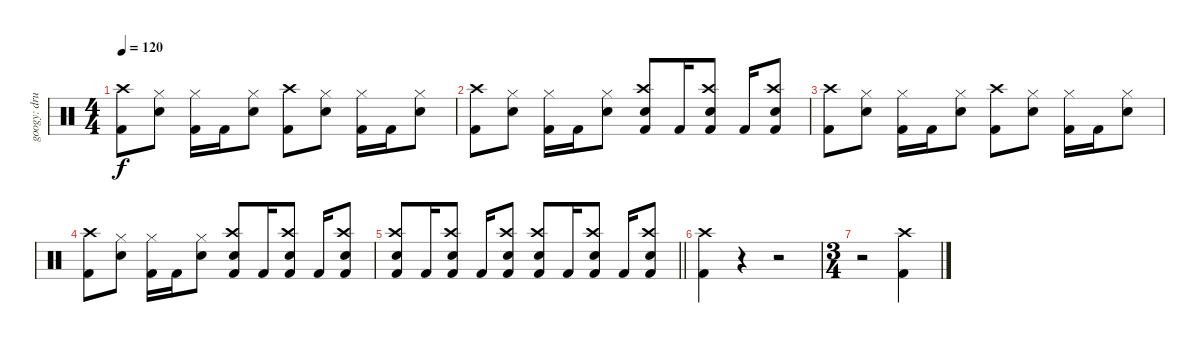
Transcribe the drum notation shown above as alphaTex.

\track ("googy: drums" "googy: dru") {instrument percussion}
\staff {score}
\articulation defaults
\ts (4 4)
\tempo 120
\clef neutral
\ks c
("Kick (hit) 2" "Crash high (hit)").8{dy f} ("Hi-Hat (closed)" "Electric Snare (hit)").8 ("Hi-Hat (closed)" "Kick (hit) 2").16 "Kick (hit) 2".16 ("Hi-Hat (closed)" "Electric Snare (hit)").8 ("Kick (hit) 2" "Crash high (hit)").8 ("Hi-Hat (closed)" "Electric Snare (hit)").8 ("Hi-Hat (closed)" "Kick (hit) 2").16 "Kick (hit) 2".16 ("Hi-Hat (closed)" "Electric Snare (hit)").8 |
("Kick (hit) 2" "Crash high (hit)").8 ("Hi-Hat (closed)" "Electric Snare (hit)").8 ("Hi-Hat (closed)" "Kick (hit) 2").16 "Kick (hit) 2".16 ("Hi-Hat (closed)" "Electric Snare (hit)").8 ("Electric Snare (hit)" "Kick (hit) 2" "Crash high (hit)").8 "Kick (hit) 2".16 ("Crash high (hit)" "Kick (hit) 2" "Electric Snare (hit)").8 "Kick (hit) 2".16 ("Crash high (hit)" "Kick (hit) 2" "Electric Snare (hit)").8 |
("Kick (hit) 2" "Crash high (hit)").8 ("Hi-Hat (closed)" "Electric Snare (hit)").8 ("Hi-Hat (closed)" "Kick (hit) 2").16 "Kick (hit) 2".16 ("Hi-Hat (closed)" "Electric Snare (hit)").8 ("Kick (hit) 2" "Crash high (hit)").8 ("Hi-Hat (closed)" "Electric Snare (hit)").8 ("Hi-Hat (closed)" "Kick (hit) 2").16 "Kick (hit) 2".16 ("Hi-Hat (closed)" "Electric Snare (hit)").8 |
("Kick (hit) 2" "Crash high (hit)").8 ("Hi-Hat (closed)" "Electric Snare (hit)").8 ("Hi-Hat (closed)" "Kick (hit) 2").16 "Kick (hit) 2".16 ("Hi-Hat (closed)" "Electric Snare (hit)").8 ("Electric Snare (hit)" "Kick (hit) 2" "Crash high (hit)").8 "Kick (hit) 2".16 ("Crash high (hit)" "Kick (hit) 2" "Electric Snare (hit)").8 "Kick (hit) 2".16 ("Crash high (hit)" "Kick (hit) 2" "Electric Snare (hit)").8 |
\barLineRight lightlight
("Electric Snare (hit)" "Kick (hit) 2" "Crash high (hit)").8 "Kick (hit) 2".16 ("Crash high (hit)" "Kick (hit) 2" "Electric Snare (hit)").8 "Kick (hit) 2".16 ("Crash high (hit)" "Kick (hit) 2" "Electric Snare (hit)").8 ("Electric Snare (hit)" "Kick (hit) 2" "Crash high (hit)").8 "Kick (hit) 2".16 ("Crash high (hit)" "Kick (hit) 2" "Electric Snare (hit)").8 "Kick (hit) 2".16 ("Crash high (hit)" "Kick (hit) 2" "Electric Snare (hit)").8 |
("Crash high (hit)" "Kick (hit) 2").4 r.4 r.2 |
\ts (3 4)
r.2 ("Crash high (hit)" "Kick (hit) 2").4
